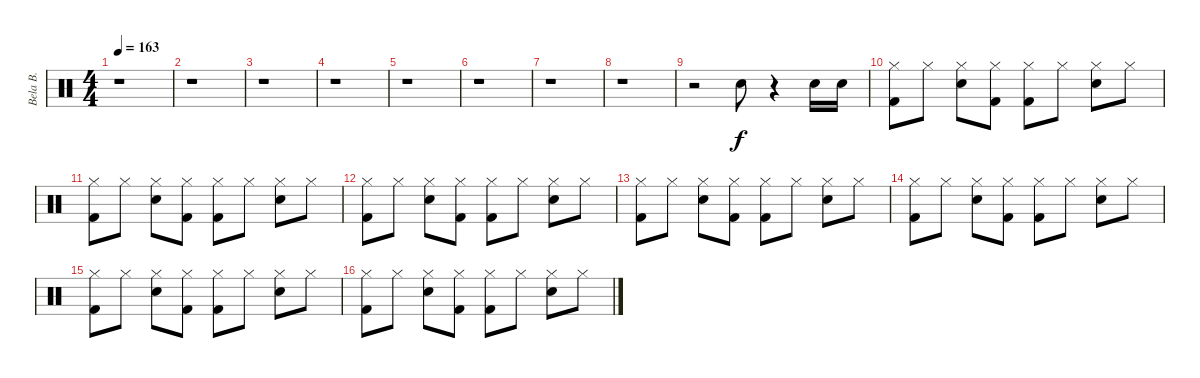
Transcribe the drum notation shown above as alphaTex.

\track ("Bela B." "Bela B.") {instrument percussion}
\staff {score}
\articulation defaults
\ts (4 4)
\tempo 163
\clef neutral
\ks c
r.1{dy f} |
r.1 |
r.1 |
r.1 |
r.1 |
r.1 |
r.1 |
r.1 |
r.2 "Snare (hit) 2".8 r.4 "Snare (hit) 2".16 "Snare (hit) 2".16 |
("Hi-Hat (closed)" "Kick (hit) 2").8 "Hi-Hat (closed)".8 ("Hi-Hat (closed)" "Snare (hit) 2").8 ("Hi-Hat (closed)" "Kick (hit) 2").8 ("Hi-Hat (closed)" "Kick (hit) 2").8 "Hi-Hat (closed)".8 ("Hi-Hat (closed)" "Snare (hit) 2").8 "Hi-Hat (closed)".8 |
("Kick (hit) 2" "Hi-Hat (closed)").8 "Hi-Hat (closed)".8 ("Snare (hit) 2" "Hi-Hat (closed)").8 ("Hi-Hat (closed)" "Kick (hit) 2").8 ("Kick (hit) 2" "Hi-Hat (closed)").8 "Hi-Hat (closed)".8 ("Hi-Hat (closed)" "Snare (hit) 2").8 "Hi-Hat (closed)".8 |
("Kick (hit) 2" "Hi-Hat (closed)").8 "Hi-Hat (closed)".8 ("Snare (hit) 2" "Hi-Hat (closed)").8 ("Kick (hit) 2" "Hi-Hat (closed)").8 ("Kick (hit) 2" "Hi-Hat (closed)").8 "Hi-Hat (closed)".8 ("Hi-Hat (closed)" "Snare (hit) 2").8 "Hi-Hat (closed)".8 |
("Hi-Hat (closed)" "Kick (hit) 2").8 "Hi-Hat (closed)".8 ("Snare (hit) 2" "Hi-Hat (closed)").8 ("Hi-Hat (closed)" "Kick (hit) 2").8 ("Kick (hit) 2" "Hi-Hat (closed)").8 "Hi-Hat (closed)".8 ("Snare (hit) 2" "Hi-Hat (closed)").8 "Hi-Hat (closed)".8 |
("Kick (hit) 2" "Hi-Hat (closed)").8 "Hi-Hat (closed)".8 ("Hi-Hat (closed)" "Snare (hit) 2").8 ("Kick (hit) 2" "Hi-Hat (closed)").8 ("Hi-Hat (closed)" "Kick (hit) 2").8 "Hi-Hat (closed)".8 ("Snare (hit) 2" "Hi-Hat (closed)").8 "Hi-Hat (closed)".8 |
("Kick (hit) 2" "Hi-Hat (closed)").8 "Hi-Hat (closed)".8 ("Hi-Hat (closed)" "Snare (hit) 2").8 ("Hi-Hat (closed)" "Kick (hit) 2").8 ("Kick (hit) 2" "Hi-Hat (closed)").8 "Hi-Hat (closed)".8 ("Hi-Hat (closed)" "Snare (hit) 2").8 "Hi-Hat (closed)".8 |
("Kick (hit) 2" "Hi-Hat (closed)").8 "Hi-Hat (closed)".8 ("Hi-Hat (closed)" "Snare (hit) 2").8 ("Kick (hit) 2" "Hi-Hat (closed)").8 ("Hi-Hat (closed)" "Kick (hit) 2").8 "Hi-Hat (closed)".8 ("Hi-Hat (closed)" "Snare (hit) 2").8 "Hi-Hat (closed)".8
